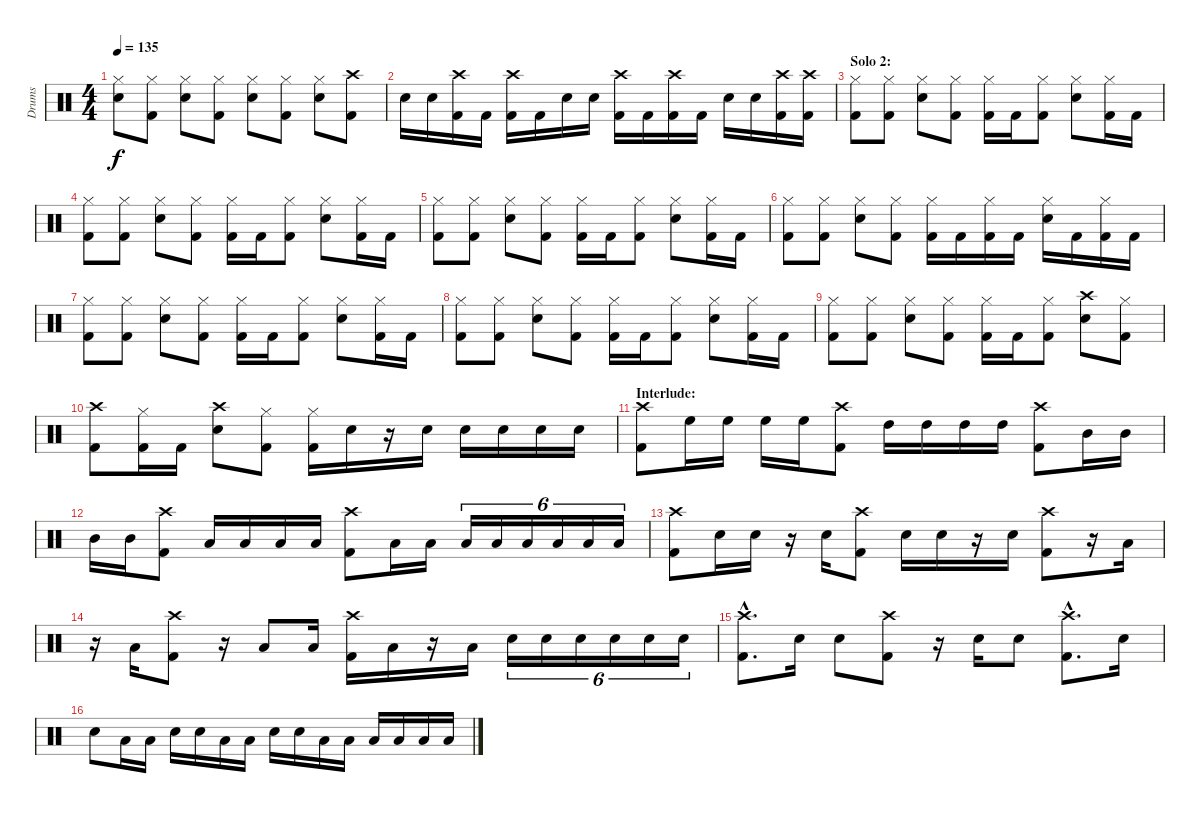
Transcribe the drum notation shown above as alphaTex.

\track ("Drums" "Drums") {instrument percussion}
\staff {score}
\articulation defaults
\ts (4 4)
\tempo 135
\clef neutral
\ks c
("Hi-Hat (closed)" "Snare (hit) 2").8{dy f} ("Hi-Hat (closed)" "Kick (hit) 2").8 ("Hi-Hat (closed)" "Snare (hit) 2").8 ("Hi-Hat (closed)" "Kick (hit) 2").8 ("Hi-Hat (closed)" "Snare (hit) 2").8 ("Hi-Hat (closed)" "Kick (hit) 2").8 ("Hi-Hat (closed)" "Snare (hit) 2").8 ("Crash high (hit)" "Kick (hit) 2").8 |
"Snare (hit) 2".16 "Snare (hit) 2".16 ("Crash high (hit)" "Kick (hit) 2").16 "Kick (hit) 2".16 ("Crash high (hit)" "Kick (hit) 2").16 "Kick (hit) 2".16 "Snare (hit) 2".16 "Snare (hit) 2".16 ("Crash high (hit)" "Kick (hit) 2").16 "Kick (hit) 2".16 ("Crash high (hit)" "Kick (hit) 2").16 "Kick (hit) 2".16 "Snare (hit) 2".16 "Snare (hit) 2".16 ("Crash high (hit)" "Kick (hit) 2").16 ("Crash high (hit)" "Kick (hit) 2").16 |
\section ("" "Solo 2:")
("Hi-Hat (closed)" "Kick (hit) 2").8 ("Hi-Hat (closed)" "Kick (hit) 2").8 ("Hi-Hat (closed)" "Snare (hit) 2").8 ("Hi-Hat (closed)" "Kick (hit) 2").8 ("Hi-Hat (closed)" "Kick (hit) 2").16 "Kick (hit) 2".16 ("Hi-Hat (closed)" "Kick (hit) 2").8 ("Hi-Hat (closed)" "Snare (hit) 2").8 ("Hi-Hat (closed)" "Kick (hit) 2").16 "Kick (hit) 2".16 |
("Hi-Hat (closed)" "Kick (hit) 2").8 ("Hi-Hat (closed)" "Kick (hit) 2").8 ("Hi-Hat (closed)" "Snare (hit) 2").8 ("Hi-Hat (closed)" "Kick (hit) 2").8 ("Hi-Hat (closed)" "Kick (hit) 2").16 "Kick (hit) 2".16 ("Hi-Hat (closed)" "Kick (hit) 2").8 ("Hi-Hat (closed)" "Snare (hit) 2").8 ("Hi-Hat (closed)" "Kick (hit) 2").16 "Kick (hit) 2".16 |
("Hi-Hat (closed)" "Kick (hit) 2").8 ("Hi-Hat (closed)" "Kick (hit) 2").8 ("Hi-Hat (closed)" "Snare (hit) 2").8 ("Hi-Hat (closed)" "Kick (hit) 2").8 ("Hi-Hat (closed)" "Kick (hit) 2").16 "Kick (hit) 2".16 ("Hi-Hat (closed)" "Kick (hit) 2").8 ("Hi-Hat (closed)" "Snare (hit) 2").8 ("Hi-Hat (closed)" "Kick (hit) 2").16 "Kick (hit) 2".16 |
("Hi-Hat (closed)" "Kick (hit) 2").8 ("Hi-Hat (closed)" "Kick (hit) 2").8 ("Hi-Hat (closed)" "Snare (hit) 2").8 ("Hi-Hat (closed)" "Kick (hit) 2").8 ("Hi-Hat (closed)" "Kick (hit) 2").16 "Kick (hit) 2".16 ("Hi-Hat (closed)" "Kick (hit) 2").16 "Kick (hit) 2".16 ("Hi-Hat (closed)" "Snare (hit) 2").16 "Kick (hit) 2".16 ("Hi-Hat (closed)" "Kick (hit) 2").16 "Kick (hit) 2".16 |
("Hi-Hat (closed)" "Kick (hit) 2").8 ("Hi-Hat (closed)" "Kick (hit) 2").8 ("Hi-Hat (closed)" "Snare (hit) 2").8 ("Hi-Hat (closed)" "Kick (hit) 2").8 ("Hi-Hat (closed)" "Kick (hit) 2").16 "Kick (hit) 2".16 ("Hi-Hat (closed)" "Kick (hit) 2").8 ("Hi-Hat (closed)" "Snare (hit) 2").8 ("Hi-Hat (closed)" "Kick (hit) 2").16 "Kick (hit) 2".16 |
("Hi-Hat (closed)" "Kick (hit) 2").8 ("Hi-Hat (closed)" "Kick (hit) 2").8 ("Hi-Hat (closed)" "Snare (hit) 2").8 ("Hi-Hat (closed)" "Kick (hit) 2").8 ("Hi-Hat (closed)" "Kick (hit) 2").16 "Kick (hit) 2".16 ("Hi-Hat (closed)" "Kick (hit) 2").8 ("Hi-Hat (closed)" "Snare (hit) 2").8 ("Hi-Hat (closed)" "Kick (hit) 2").16 "Kick (hit) 2".16 |
("Hi-Hat (closed)" "Kick (hit) 2").8 ("Hi-Hat (closed)" "Kick (hit) 2").8 ("Hi-Hat (closed)" "Snare (hit) 2").8 ("Hi-Hat (closed)" "Kick (hit) 2").8 ("Hi-Hat (closed)" "Kick (hit) 2").16 "Kick (hit) 2".16 ("Hi-Hat (closed)" "Kick (hit) 2").8 ("Crash high (hit)" "Snare (hit) 2").8 ("Hi-Hat (closed)" "Kick (hit) 2").8 |
("Crash high (hit)" "Kick (hit) 2").8 ("Hi-Hat (closed)" "Kick (hit) 2").16 "Kick (hit) 2".16 ("Crash high (hit)" "Snare (hit) 2").8 ("Hi-Hat (closed)" "Kick (hit) 2").8 ("Hi-Hat (closed)" "Kick (hit) 2").16 "Snare (hit) 2".16 r.16 "Snare (hit) 2".16 "Snare (hit) 2".16 "Snare (hit) 2".16 "Snare (hit) 2".16 "Snare (hit) 2".16 |
\section ("" "Interlude:")
("Crash high (hit)" "Kick (hit) 2").8 "High Floor Tom (hit)".16 "High Floor Tom (hit)".16 "High Floor Tom (hit)".16 "High Floor Tom (hit)".16 ("Crash high (hit)" "Kick (hit) 2").8 "High Tom (hit)".16 "High Tom (hit)".16 "High Tom (hit)".16 "High Tom (hit)".16 ("Crash high (hit)" "Kick (hit) 2").8 "Mid Tom (hit)".16 "Mid Tom (hit)".16 |
"Mid Tom (hit)".16 "Mid Tom (hit)".16 ("Crash high (hit)" "Kick (hit) 2").8 "Low Tom (hit)".16 "Low Tom (hit)".16 "Low Tom (hit)".16 "Low Tom (hit)".16 ("Crash high (hit)" "Kick (hit) 2").8 "Low Tom (hit)".16 "Low Tom (hit)".16 "Low Tom (hit)".16{tu (6 4)} "Low Tom (hit)".16{tu (6 4)} "Low Tom (hit)".16{tu (6 4)} "Low Tom (hit)".16{tu (6 4)} "Low Tom (hit)".16{tu (6 4)} "Low Tom (hit)".16{tu (6 4)} |
("Crash high (hit)" "Kick (hit) 2").8 "Snare (hit) 2".16 "Snare (hit) 2".16 r.16 "Snare (hit) 2".16 ("Crash high (hit)" "Kick (hit) 2").8 "Snare (hit) 2".16 "Snare (hit) 2".16 r.16 "Snare (hit) 2".16 ("Crash high (hit)" "Kick (hit) 2").8 r.16 "Low Tom (hit)".16 |
r.16 "Low Tom (hit)".16 ("Crash high (hit)" "Kick (hit) 2").8 r.16 "Low Tom (hit)".8 "Low Tom (hit)".16 ("Crash high (hit)" "Kick (hit) 2").16 "Low Tom (hit)".16 r.16 "Low Tom (hit)".16 "Snare (hit) 2".16{tu (6 4)} "Snare (hit) 2".16{tu (6 4)} "Snare (hit) 2".16{tu (6 4)} "Snare (hit) 2".16{tu (6 4)} "Snare (hit) 2".16{tu (6 4)} "Snare (hit) 2".16{tu (6 4)} |
("Crash high (hit)"{hac} "Kick (hit) 2"{hac}).8{d} "Snare (hit) 2".16 "Snare (hit) 2".8 ("Crash high (hit)" "Kick (hit) 2").8 r.16 "Snare (hit) 2".16 "Snare (hit) 2".8 ("Crash high (hit)"{hac} "Kick (hit) 2"{hac}).8{d} "Snare (hit) 2".16 |
"Snare (hit) 2".8 "Low Tom (hit)".16 "Low Tom (hit)".16 "Snare (hit) 2".16 "Snare (hit) 2".16 "Low Tom (hit)".16 "Low Tom (hit)".16 "Snare (hit) 2".16 "Snare (hit) 2".16 "Low Tom (hit)".16 "Low Tom (hit)".16 "Low Tom (hit)".16 "Low Tom (hit)".16 "Low Tom (hit)".16 "Low Tom (hit)".16
